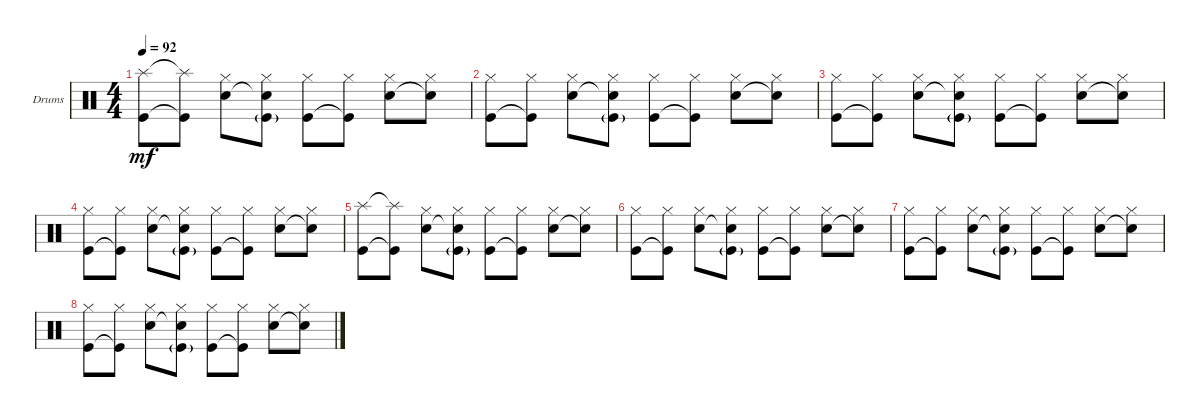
\bracketExtendMode groupsimilarinstruments
\firstSystemTrackNameOrientation horizontal
\otherSystemsTrackNameOrientation horizontal
\track ("Drumkit" "Drums") {instrument percussion}
\staff {score}
\articulation defaults
\ts (4 4)
\tempo 92
\clef neutral
\ks c
("Kick (hit)" "Splash (hit)").8{dy mf} ("Kick (hit)"{t} "Splash (hit)"{t}).8 ("Hi-Hat (closed)" "Snare (hit) 2").8 ("Hi-Hat (closed)" "Snare (hit) 2"{t} "Kick (hit)"{g}).8 ("Hi-Hat (closed)" "Kick (hit)").8 ("Hi-Hat (closed)" "Kick (hit)"{t}).8 ("Hi-Hat (closed)" "Snare (hit) 2").8 ("Hi-Hat (closed)" "Snare (hit) 2"{t}).8 |
("Hi-Hat (closed)" "Kick (hit)").8 ("Hi-Hat (closed)" "Kick (hit)"{t}).8 ("Hi-Hat (closed)" "Snare (hit) 2").8 ("Hi-Hat (closed)" "Snare (hit) 2"{t} "Kick (hit)"{g}).8 ("Hi-Hat (closed)" "Kick (hit)").8 ("Hi-Hat (closed)" "Kick (hit)"{t}).8 ("Hi-Hat (closed)" "Snare (hit) 2").8 ("Hi-Hat (closed)" "Snare (hit) 2"{t}).8 |
("Hi-Hat (closed)" "Kick (hit)").8 ("Hi-Hat (closed)" "Kick (hit)"{t}).8 ("Hi-Hat (closed)" "Snare (hit) 2").8 ("Hi-Hat (closed)" "Snare (hit) 2"{t} "Kick (hit)"{g}).8 ("Hi-Hat (closed)" "Kick (hit)").8 ("Hi-Hat (closed)" "Kick (hit)"{t}).8 ("Hi-Hat (closed)" "Snare (hit) 2").8 ("Hi-Hat (closed)" "Snare (hit) 2"{t}).8 |
("Hi-Hat (closed)" "Kick (hit)").8 ("Hi-Hat (closed)" "Kick (hit)"{t}).8 ("Hi-Hat (closed)" "Snare (hit) 2").8 ("Hi-Hat (closed)" "Snare (hit) 2"{t} "Kick (hit)"{g}).8 ("Hi-Hat (closed)" "Kick (hit)").8 ("Hi-Hat (closed)" "Kick (hit)"{t}).8 ("Hi-Hat (closed)" "Snare (hit) 2").8 ("Hi-Hat (closed)" "Snare (hit) 2"{t}).8 |
("Kick (hit)" "Splash (hit)").8 ("Kick (hit)"{t} "Splash (hit)"{t}).8 ("Hi-Hat (closed)" "Snare (hit) 2").8 ("Hi-Hat (closed)" "Snare (hit) 2"{t} "Kick (hit)"{g}).8 ("Hi-Hat (closed)" "Kick (hit)").8 ("Hi-Hat (closed)" "Kick (hit)"{t}).8 ("Hi-Hat (closed)" "Snare (hit) 2").8 ("Hi-Hat (closed)" "Snare (hit) 2"{t}).8 |
("Hi-Hat (closed)" "Kick (hit)").8 ("Hi-Hat (closed)" "Kick (hit)"{t}).8 ("Hi-Hat (closed)" "Snare (hit) 2").8 ("Hi-Hat (closed)" "Snare (hit) 2"{t} "Kick (hit)"{g}).8 ("Hi-Hat (closed)" "Kick (hit)").8 ("Hi-Hat (closed)" "Kick (hit)"{t}).8 ("Hi-Hat (closed)" "Snare (hit) 2").8 ("Hi-Hat (closed)" "Snare (hit) 2"{t}).8 |
("Hi-Hat (closed)" "Kick (hit)").8 ("Hi-Hat (closed)" "Kick (hit)"{t}).8 ("Hi-Hat (closed)" "Snare (hit) 2").8 ("Hi-Hat (closed)" "Snare (hit) 2"{t} "Kick (hit)"{g}).8 ("Hi-Hat (closed)" "Kick (hit)").8 ("Hi-Hat (closed)" "Kick (hit)"{t}).8 ("Hi-Hat (closed)" "Snare (hit) 2").8 ("Hi-Hat (closed)" "Snare (hit) 2"{t}).8 |
("Hi-Hat (closed)" "Kick (hit)").8 ("Hi-Hat (closed)" "Kick (hit)"{t}).8 ("Hi-Hat (closed)" "Snare (hit) 2").8 ("Hi-Hat (closed)" "Snare (hit) 2"{t} "Kick (hit)"{g}).8 ("Hi-Hat (closed)" "Kick (hit)").8 ("Hi-Hat (closed)" "Kick (hit)"{t}).8 ("Hi-Hat (closed)" "Snare (hit) 2").8 ("Hi-Hat (closed)" "Snare (hit) 2"{t}).8
